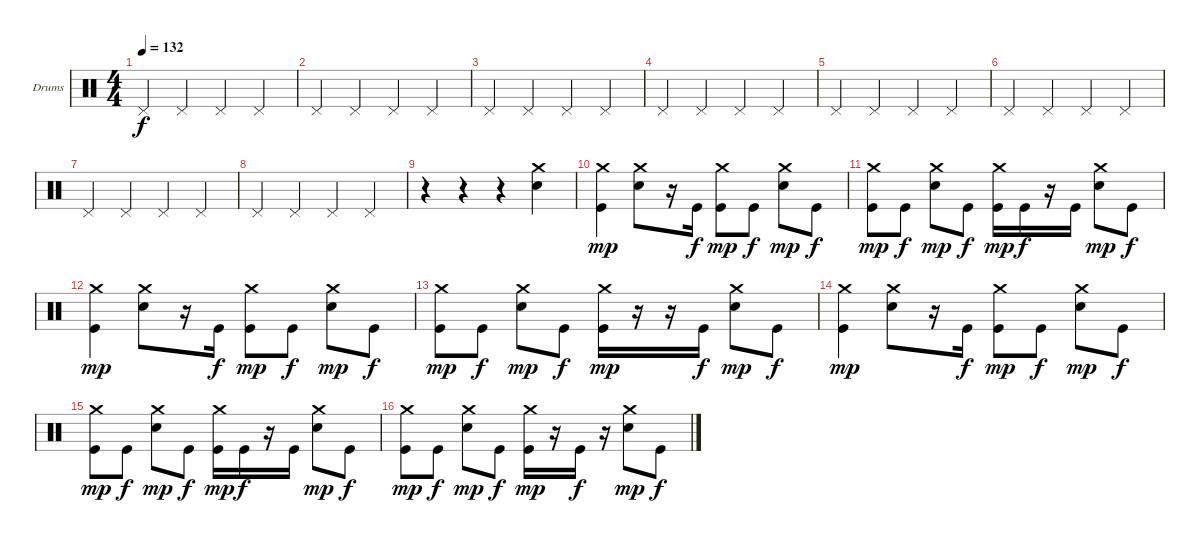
\bracketExtendMode groupsimilarinstruments
\firstSystemTrackNameOrientation horizontal
\otherSystemsTrackNameOrientation horizontal
\track ("Drumkit" "Drums") {instrument percussion}
\staff {score}
\articulation defaults
\ts (4 4)
\tempo 132
\clef neutral
\ks c "Pedal Hi-Hat (hit)".4{dy f} "Pedal Hi-Hat (hit)".4 "Pedal Hi-Hat (hit)".4 "Pedal Hi-Hat (hit)".4
|
"Pedal Hi-Hat (hit)".4 "Pedal Hi-Hat (hit)".4 "Pedal Hi-Hat (hit)".4 "Pedal Hi-Hat (hit)".4 |
"Pedal Hi-Hat (hit)".4 "Pedal Hi-Hat (hit)".4 "Pedal Hi-Hat (hit)".4 "Pedal Hi-Hat (hit)".4 |
"Pedal Hi-Hat (hit)".4 "Pedal Hi-Hat (hit)".4 "Pedal Hi-Hat (hit)".4 "Pedal Hi-Hat (hit)".4 |
"Pedal Hi-Hat (hit)".4 "Pedal Hi-Hat (hit)".4 "Pedal Hi-Hat (hit)".4 "Pedal Hi-Hat (hit)".4 |
"Pedal Hi-Hat (hit)".4 "Pedal Hi-Hat (hit)".4 "Pedal Hi-Hat (hit)".4 "Pedal Hi-Hat (hit)".4 |
"Pedal Hi-Hat (hit)".4 "Pedal Hi-Hat (hit)".4 "Pedal Hi-Hat (hit)".4 "Pedal Hi-Hat (hit)".4 |
"Pedal Hi-Hat (hit)".4 "Pedal Hi-Hat (hit)".4 "Pedal Hi-Hat (hit)".4 "Pedal Hi-Hat (hit)".4 |
r.4 r.4 r.4 ("Crash medium (hit)" "Snare (hit) 2").4 |
("Crash medium (hit)" "Kick (hit)").4{dy mp} ("Crash medium (hit)" "Snare (hit) 2").8 r.16 "Kick (hit)".16{dy f} ("Crash medium (hit)" "Kick (hit)").8{dy mp} "Kick (hit)".8{dy f} ("Crash medium (hit)" "Snare (hit) 2").8{dy mp} "Kick (hit)".8{dy f} |
("Crash medium (hit)" "Kick (hit)").8{dy mp} "Kick (hit)".8{dy f} ("Crash medium (hit)" "Snare (hit) 2").8{dy mp} "Kick (hit)".8{dy f} ("Crash medium (hit)" "Kick (hit)").16{dy mp} "Kick (hit)".16{dy f} r.16 "Kick (hit)".16 ("Crash medium (hit)" "Snare (hit) 2").8{dy mp} "Kick (hit)".8{dy f} |
("Crash medium (hit)" "Kick (hit)").4{dy mp} ("Crash medium (hit)" "Snare (hit) 2").8 r.16 "Kick (hit)".16{dy f} ("Crash medium (hit)" "Kick (hit)").8{dy mp} "Kick (hit)".8{dy f} ("Crash medium (hit)" "Snare (hit) 2").8{dy mp} "Kick (hit)".8{dy f} |
("Crash medium (hit)" "Kick (hit)").8{dy mp} "Kick (hit)".8{dy f} ("Crash medium (hit)" "Snare (hit) 2").8{dy mp} "Kick (hit)".8{dy f} ("Crash medium (hit)" "Kick (hit)").16{dy mp} r.16 r.16 "Kick (hit)".16{dy f} ("Crash medium (hit)" "Snare (hit) 2").8{dy mp} "Kick (hit)".8{dy f} |
("Crash medium (hit)" "Kick (hit)").4{dy mp} ("Crash medium (hit)" "Snare (hit) 2").8 r.16 "Kick (hit)".16{dy f} ("Crash medium (hit)" "Kick (hit)").8{dy mp} "Kick (hit)".8{dy f} ("Crash medium (hit)" "Snare (hit) 2").8{dy mp} "Kick (hit)".8{dy f} |
("Crash medium (hit)" "Kick (hit)").8{dy mp} "Kick (hit)".8{dy f} ("Crash medium (hit)" "Snare (hit) 2").8{dy mp} "Kick (hit)".8{dy f} ("Crash medium (hit)" "Kick (hit)").16{dy mp} "Kick (hit)".16{dy f} r.16 "Kick (hit)".16 ("Crash medium (hit)" "Snare (hit) 2").8{dy mp} "Kick (hit)".8{dy f} |
("Crash medium (hit)" "Kick (hit)").8{dy mp} "Kick (hit)".8{dy f} ("Crash medium (hit)" "Snare (hit) 2").8{dy mp} "Kick (hit)".8{dy f} ("Crash medium (hit)" "Kick (hit)").16{dy mp} r.16 "Kick (hit)".16{dy f} r.16 ("Crash medium (hit)" "Snare (hit) 2").8{dy mp} "Kick (hit)".8{dy f}
